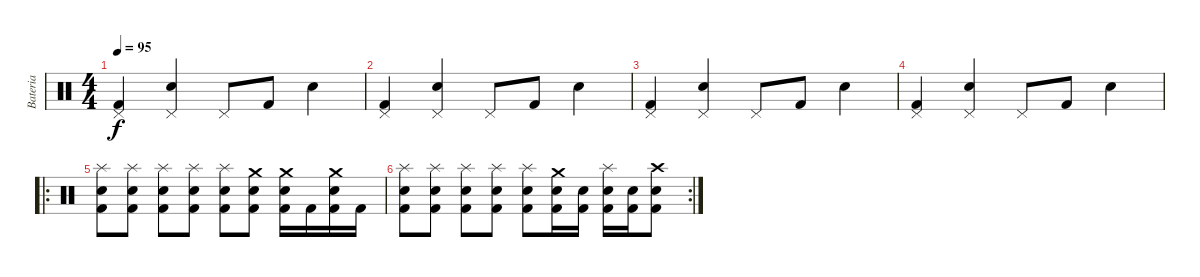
\track ("Bateria" "Bateria") {instrument percussion}
\staff {score}
\articulation defaults
\ts (4 4)
\tempo 95
\clef neutral
\ks c
("Pedal Hi-Hat (hit)" "Kick (hit) 2").4{dy f} ("Pedal Hi-Hat (hit)" "Electric Snare (hit)").4 "Pedal Hi-Hat (hit)".8 "Kick (hit) 2".8 "Electric Snare (hit)".4 |
("Pedal Hi-Hat (hit)" "Kick (hit) 2").4 ("Pedal Hi-Hat (hit)" "Electric Snare (hit)").4 "Pedal Hi-Hat (hit)".8 "Kick (hit) 2".8 "Electric Snare (hit)".4 |
("Pedal Hi-Hat (hit)" "Kick (hit) 2").4 ("Pedal Hi-Hat (hit)" "Electric Snare (hit)").4 "Pedal Hi-Hat (hit)".8 "Kick (hit) 2".8 "Electric Snare (hit)".4 |
("Pedal Hi-Hat (hit)" "Kick (hit) 2").4 ("Pedal Hi-Hat (hit)" "Electric Snare (hit)").4 "Pedal Hi-Hat (hit)".8 "Kick (hit) 2".8 "Electric Snare (hit)".4 |
\ro
("Splash (hit)" "Electric Snare (hit)" "Kick (hit) 2").8 ("Splash (hit)" "Electric Snare (hit)" "Kick (hit) 2").8 ("Splash (hit)" "Electric Snare (hit)" "Kick (hit) 2").8 ("Splash (hit)" "Electric Snare (hit)" "Kick (hit) 2").8 ("Splash (hit)" "Hand Clap (hit)" "Kick (hit) 2").8 ("Crash medium (hit)" "Electric Snare (hit)" "Kick (hit) 2").8 ("Crash medium (hit)" "Hand Clap (hit)" "Kick (hit) 2").16 "Kick (hit) 2".16 ("Crash medium (hit)" "Electric Snare (hit)" "Kick (hit) 2").16 "Kick (hit) 2".16 |
\rc 2
("Splash (hit)" "Electric Snare (hit)" "Kick (hit) 2").8 ("Splash (hit)" "Electric Snare (hit)" "Kick (hit) 2").8 ("Splash (hit)" "Electric Snare (hit)" "Kick (hit) 2").8 ("Splash (hit)" "Electric Snare (hit)" "Kick (hit) 2").8 ("Splash (hit)" "Electric Snare (hit)" "Kick (hit) 2").8 ("Crash medium (hit)" "Electric Snare (hit)" "Kick (hit) 2").16 ("Electric Snare (hit)" "Kick (hit) 2").16 ("Splash (hit)" "Electric Snare (hit)" "Kick (hit) 2").16 ("Electric Snare (hit)" "Kick (hit) 2").16 ("Crash high (hit)" "Electric Snare (hit)" "Kick (hit) 2").8
